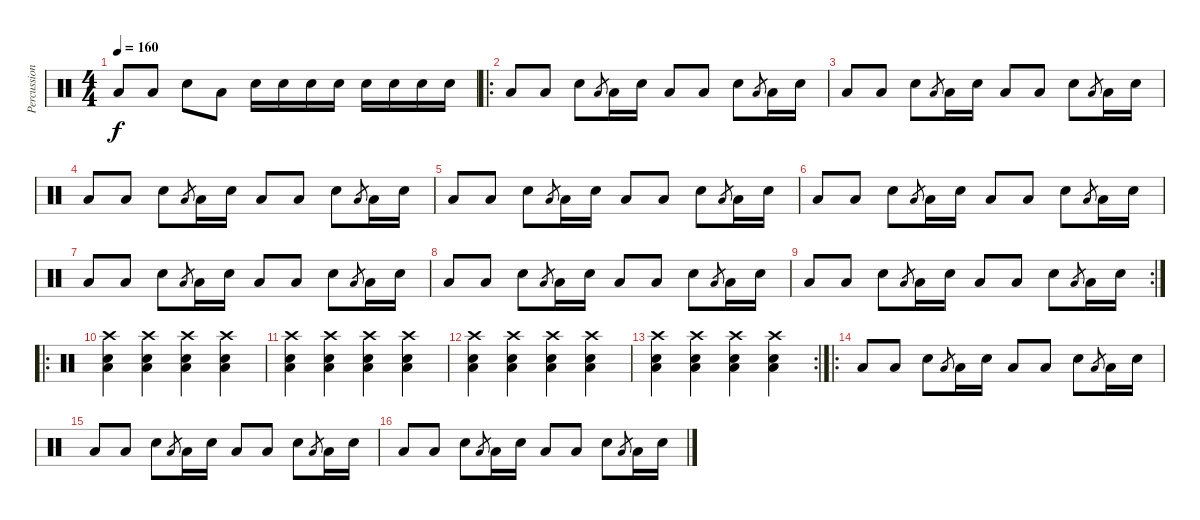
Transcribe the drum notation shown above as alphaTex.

\track ("Percussion" "Percussion") {instrument percussion}
\staff {score}
\articulation defaults
\ts (4 4)
\tempo 160
\clef neutral
\ks c "Low Floor Tom (hit)".8{dy f} "Low Floor Tom (hit)".8 "Snare (hit) 2".8 "Low Floor Tom (hit)".8 "Snare (hit) 2".16 "Snare (hit) 2".16 "Snare (hit) 2".16 "Snare (hit) 2".16 "Snare (hit) 2".16 "Snare (hit) 2".16 "Snare (hit) 2".16 "Snare (hit) 2".16
|
\ro "Low Floor Tom (hit)".8 "Low Floor Tom (hit)".8 "Snare (hit) 2".8 "Low Floor Tom (hit)".8{gr} "Low Floor Tom (hit)".16 "Snare (hit) 2".16 "Low Floor Tom (hit)".8 "Low Floor Tom (hit)".8 "Snare (hit) 2".8 "Low Floor Tom (hit)".8{gr} "Low Floor Tom (hit)".16 "Snare (hit) 2".16
|
"Low Floor Tom (hit)".8 "Low Floor Tom (hit)".8 "Snare (hit) 2".8 "Low Floor Tom (hit)".8{gr} "Low Floor Tom (hit)".16 "Snare (hit) 2".16 "Low Floor Tom (hit)".8 "Low Floor Tom (hit)".8 "Snare (hit) 2".8 "Low Floor Tom (hit)".8{gr} "Low Floor Tom (hit)".16 "Snare (hit) 2".16 |
"Low Floor Tom (hit)".8 "Low Floor Tom (hit)".8 "Snare (hit) 2".8 "Low Floor Tom (hit)".8{gr} "Low Floor Tom (hit)".16 "Snare (hit) 2".16 "Low Floor Tom (hit)".8 "Low Floor Tom (hit)".8 "Snare (hit) 2".8 "Low Floor Tom (hit)".8{gr} "Low Floor Tom (hit)".16 "Snare (hit) 2".16 |
"Low Floor Tom (hit)".8 "Low Floor Tom (hit)".8 "Snare (hit) 2".8 "Low Floor Tom (hit)".8{gr} "Low Floor Tom (hit)".16 "Snare (hit) 2".16 "Low Floor Tom (hit)".8 "Low Floor Tom (hit)".8 "Snare (hit) 2".8 "Low Floor Tom (hit)".8{gr} "Low Floor Tom (hit)".16 "Snare (hit) 2".16 |
"Low Floor Tom (hit)".8 "Low Floor Tom (hit)".8 "Snare (hit) 2".8 "Low Floor Tom (hit)".8{gr} "Low Floor Tom (hit)".16 "Snare (hit) 2".16 "Low Floor Tom (hit)".8 "Low Floor Tom (hit)".8 "Snare (hit) 2".8 "Low Floor Tom (hit)".8{gr} "Low Floor Tom (hit)".16 "Snare (hit) 2".16 |
"Low Floor Tom (hit)".8 "Low Floor Tom (hit)".8 "Snare (hit) 2".8 "Low Floor Tom (hit)".8{gr} "Low Floor Tom (hit)".16 "Snare (hit) 2".16 "Low Floor Tom (hit)".8 "Low Floor Tom (hit)".8 "Snare (hit) 2".8 "Low Floor Tom (hit)".8{gr} "Low Floor Tom (hit)".16 "Snare (hit) 2".16 |
"Low Floor Tom (hit)".8 "Low Floor Tom (hit)".8 "Snare (hit) 2".8 "Low Floor Tom (hit)".8{gr} "Low Floor Tom (hit)".16 "Snare (hit) 2".16 "Low Floor Tom (hit)".8 "Low Floor Tom (hit)".8 "Snare (hit) 2".8 "Low Floor Tom (hit)".8{gr} "Low Floor Tom (hit)".16 "Snare (hit) 2".16 |
\rc 2 "Low Floor Tom (hit)".8 "Low Floor Tom (hit)".8 "Snare (hit) 2".8 "Low Floor Tom (hit)".8{gr} "Low Floor Tom (hit)".16 "Snare (hit) 2".16 "Low Floor Tom (hit)".8 "Low Floor Tom (hit)".8 "Snare (hit) 2".8 "Low Floor Tom (hit)".8{gr} "Low Floor Tom (hit)".16 "Snare (hit) 2".16
|
\ro
("Crash high (hit)" "Snare (hit) 2" "Low Floor Tom (hit)").4 ("Crash high (hit)" "Snare (hit) 2" "Low Floor Tom (hit)").4 ("Crash high (hit)" "Snare (hit) 2" "Low Floor Tom (hit)").4 ("Crash high (hit)" "Snare (hit) 2" "Low Floor Tom (hit)").4 |
("Crash high (hit)" "Snare (hit) 2" "Low Floor Tom (hit)").4 ("Crash high (hit)" "Snare (hit) 2" "Low Floor Tom (hit)").4 ("Crash high (hit)" "Snare (hit) 2" "Low Floor Tom (hit)").4 ("Crash high (hit)" "Snare (hit) 2" "Low Floor Tom (hit)").4 |
("Crash high (hit)" "Snare (hit) 2" "Low Floor Tom (hit)").4 ("Crash high (hit)" "Snare (hit) 2" "Low Floor Tom (hit)").4 ("Crash high (hit)" "Snare (hit) 2" "Low Floor Tom (hit)").4 ("Crash high (hit)" "Snare (hit) 2" "Low Floor Tom (hit)").4 |
\rc 2
("Crash high (hit)" "Snare (hit) 2" "Low Floor Tom (hit)").4 ("Crash high (hit)" "Snare (hit) 2" "Low Floor Tom (hit)").4 ("Crash high (hit)" "Snare (hit) 2" "Low Floor Tom (hit)").4 ("Crash high (hit)" "Snare (hit) 2" "Low Floor Tom (hit)").4 |
\ro "Low Floor Tom (hit)".8 "Low Floor Tom (hit)".8 "Snare (hit) 2".8 "Low Floor Tom (hit)".8{gr} "Low Floor Tom (hit)".16 "Snare (hit) 2".16 "Low Floor Tom (hit)".8 "Low Floor Tom (hit)".8 "Snare (hit) 2".8 "Low Floor Tom (hit)".8{gr} "Low Floor Tom (hit)".16 "Snare (hit) 2".16
|
"Low Floor Tom (hit)".8 "Low Floor Tom (hit)".8 "Snare (hit) 2".8 "Low Floor Tom (hit)".8{gr} "Low Floor Tom (hit)".16 "Snare (hit) 2".16 "Low Floor Tom (hit)".8 "Low Floor Tom (hit)".8 "Snare (hit) 2".8 "Low Floor Tom (hit)".8{gr} "Low Floor Tom (hit)".16 "Snare (hit) 2".16 |
"Low Floor Tom (hit)".8 "Low Floor Tom (hit)".8 "Snare (hit) 2".8 "Low Floor Tom (hit)".8{gr} "Low Floor Tom (hit)".16 "Snare (hit) 2".16 "Low Floor Tom (hit)".8 "Low Floor Tom (hit)".8 "Snare (hit) 2".8 "Low Floor Tom (hit)".8{gr} "Low Floor Tom (hit)".16 "Snare (hit) 2".16
